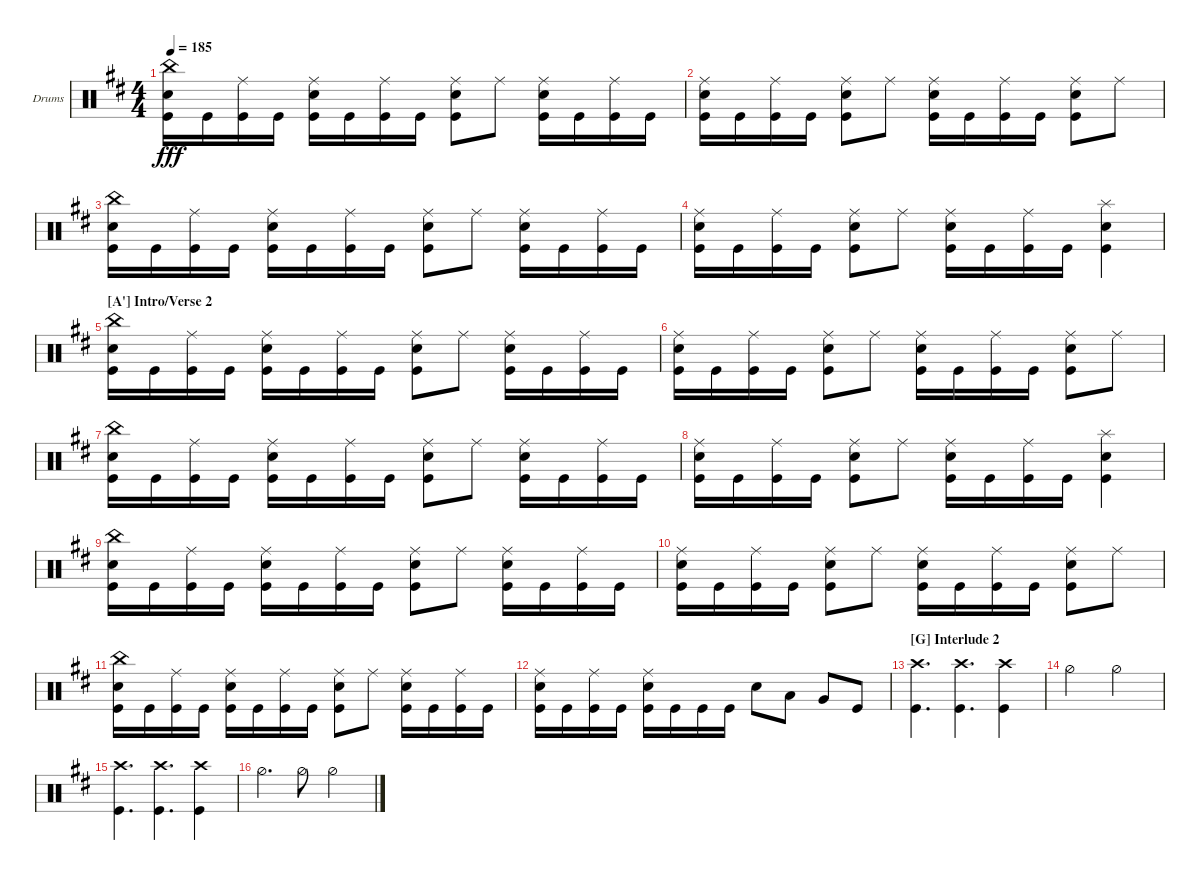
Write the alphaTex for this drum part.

\defaultSystemsLayout 4
\bracketExtendMode groupsimilarinstruments
\firstSystemTrackNameOrientation horizontal
\otherSystemsTrackNameOrientation horizontal
\track ("Drumkit" "Drums") {instrument percussion}
\staff {score}
\articulation defaults
\ts (4 4)
\tempo 185
\clef neutral
\ks bminor
("Snare (hit) 2" "China (hit)" "Kick (hit)").16{dy fff} "Kick (hit)".16 ("Kick (hit)" "Ride (middle)").16 "Kick (hit)".16 ("Snare (hit) 2" "Ride (middle)" "Kick (hit)").16 "Kick (hit)".16 ("Kick (hit)" "Ride (middle)").16 "Kick (hit)".16 ("Snare (hit) 2" "Ride (middle)" "Kick (hit)").8 "Ride (middle)".8 ("Snare (hit) 2" "Ride (middle)" "Kick (hit)").16 "Kick (hit)".16 ("Kick (hit)" "Ride (middle)").16 "Kick (hit)".16 |
("Snare (hit) 2" "Ride (middle)" "Kick (hit)").16 "Kick (hit)".16 ("Kick (hit)" "Ride (middle)").16 "Kick (hit)".16 ("Snare (hit) 2" "Ride (middle)" "Kick (hit)").8 "Ride (middle)".8 ("Snare (hit) 2" "Ride (middle)" "Kick (hit)").16 "Kick (hit)".16 ("Kick (hit)" "Ride (middle)").16 "Kick (hit)".16 ("Snare (hit) 2" "Ride (middle)" "Kick (hit)").8 "Ride (middle)".8 |
("Snare (hit) 2" "China (hit)" "Kick (hit)").16 "Kick (hit)".16 ("Kick (hit)" "Ride (middle)").16 "Kick (hit)".16 ("Snare (hit) 2" "Ride (middle)" "Kick (hit)").16 "Kick (hit)".16 ("Kick (hit)" "Ride (middle)").16 "Kick (hit)".16 ("Snare (hit) 2" "Ride (middle)" "Kick (hit)").8 "Ride (middle)".8 ("Snare (hit) 2" "Ride (middle)" "Kick (hit)").16 "Kick (hit)".16 ("Kick (hit)" "Ride (middle)").16 "Kick (hit)".16 |
("Snare (hit) 2" "Ride (middle)" "Kick (hit)").16 "Kick (hit)".16 ("Kick (hit)" "Ride (middle)").16 "Kick (hit)".16 ("Snare (hit) 2" "Ride (middle)" "Kick (hit)").8 "Ride (middle)".8 ("Snare (hit) 2" "Ride (middle)" "Kick (hit)").16 "Kick (hit)".16 ("Kick (hit)" "Ride (middle)").16 "Kick (hit)".16 ("Snare (hit) 2" "Kick (hit)" "Splash (hit)").4 |
\section ("A'" "Intro/Verse 2")
("Snare (hit) 2" "China (hit)" "Kick (hit)").16 "Kick (hit)".16 ("Kick (hit)" "Ride (middle)").16 "Kick (hit)".16 ("Snare (hit) 2" "Ride (middle)" "Kick (hit)").16 "Kick (hit)".16 ("Kick (hit)" "Ride (middle)").16 "Kick (hit)".16 ("Snare (hit) 2" "Ride (middle)" "Kick (hit)").8 "Ride (middle)".8 ("Snare (hit) 2" "Ride (middle)" "Kick (hit)").16 "Kick (hit)".16 ("Kick (hit)" "Ride (middle)").16 "Kick (hit)".16 |
("Snare (hit) 2" "Ride (middle)" "Kick (hit)").16 "Kick (hit)".16 ("Kick (hit)" "Ride (middle)").16 "Kick (hit)".16 ("Snare (hit) 2" "Ride (middle)" "Kick (hit)").8 "Ride (middle)".8 ("Snare (hit) 2" "Ride (middle)" "Kick (hit)").16 "Kick (hit)".16 ("Kick (hit)" "Ride (middle)").16 "Kick (hit)".16 ("Snare (hit) 2" "Ride (middle)" "Kick (hit)").8 "Ride (middle)".8 |
("Snare (hit) 2" "China (hit)" "Kick (hit)").16 "Kick (hit)".16 ("Kick (hit)" "Ride (middle)").16 "Kick (hit)".16 ("Snare (hit) 2" "Ride (middle)" "Kick (hit)").16 "Kick (hit)".16 ("Kick (hit)" "Ride (middle)").16 "Kick (hit)".16 ("Snare (hit) 2" "Ride (middle)" "Kick (hit)").8 "Ride (middle)".8 ("Snare (hit) 2" "Ride (middle)" "Kick (hit)").16 "Kick (hit)".16 ("Kick (hit)" "Ride (middle)").16 "Kick (hit)".16 |
("Snare (hit) 2" "Ride (middle)" "Kick (hit)").16 "Kick (hit)".16 ("Kick (hit)" "Ride (middle)").16 "Kick (hit)".16 ("Snare (hit) 2" "Ride (middle)" "Kick (hit)").8 "Ride (middle)".8 ("Snare (hit) 2" "Ride (middle)" "Kick (hit)").16 "Kick (hit)".16 ("Kick (hit)" "Ride (middle)").16 "Kick (hit)".16 ("Snare (hit) 2" "Kick (hit)" "Splash (hit)").4 |
("Snare (hit) 2" "China (hit)" "Kick (hit)").16 "Kick (hit)".16 ("Kick (hit)" "Ride (middle)").16 "Kick (hit)".16 ("Snare (hit) 2" "Ride (middle)" "Kick (hit)").16 "Kick (hit)".16 ("Kick (hit)" "Ride (middle)").16 "Kick (hit)".16 ("Snare (hit) 2" "Ride (middle)" "Kick (hit)").8 "Ride (middle)".8 ("Snare (hit) 2" "Ride (middle)" "Kick (hit)").16 "Kick (hit)".16 ("Kick (hit)" "Ride (middle)").16 "Kick (hit)".16 |
("Snare (hit) 2" "Ride (middle)" "Kick (hit)").16 "Kick (hit)".16 ("Kick (hit)" "Ride (middle)").16 "Kick (hit)".16 ("Snare (hit) 2" "Ride (middle)" "Kick (hit)").8 "Ride (middle)".8 ("Snare (hit) 2" "Ride (middle)" "Kick (hit)").16 "Kick (hit)".16 ("Kick (hit)" "Ride (middle)").16 "Kick (hit)".16 ("Snare (hit) 2" "Ride (middle)" "Kick (hit)").8 "Ride (middle)".8 |
("Snare (hit) 2" "China (hit)" "Kick (hit)").16 "Kick (hit)".16 ("Kick (hit)" "Ride (middle)").16 "Kick (hit)".16 ("Snare (hit) 2" "Ride (middle)" "Kick (hit)").16 "Kick (hit)".16 ("Kick (hit)" "Ride (middle)").16 "Kick (hit)".16 ("Snare (hit) 2" "Ride (middle)" "Kick (hit)").8 "Ride (middle)".8 ("Snare (hit) 2" "Ride (middle)" "Kick (hit)").16 "Kick (hit)".16 ("Kick (hit)" "Ride (middle)").16 "Kick (hit)".16 |
("Snare (hit) 2" "Ride (middle)" "Kick (hit)").16 "Kick (hit)".16 ("Kick (hit)" "Ride (middle)").16 "Kick (hit)".16 ("Snare (hit) 2" "Ride (middle)" "Kick (hit)").16 "Kick (hit)".16 "Kick (hit)".16 "Kick (hit)".16 "Snare (hit) 2".8 "Low Tom (hit)".8 "Very Low Tom (hit)".8 "Kick (hit)".8 |
\section ("G" "Interlude 2")
("Kick (hit)" "Crash high (hit)").4{d} ("Kick (hit)" "Crash high (hit)").4{d} ("Kick (hit)" "Crash high (hit)").4 |
"Hi-Hat (half)".2 "Hi-Hat (half)".2 |
("Kick (hit)" "Crash high (hit)").4{d} ("Kick (hit)" "Crash high (hit)").4{d} ("Kick (hit)" "Crash high (hit)").4 |
"Hi-Hat (half)".4{d} "Hi-Hat (half)".8 "Hi-Hat (half)".2
